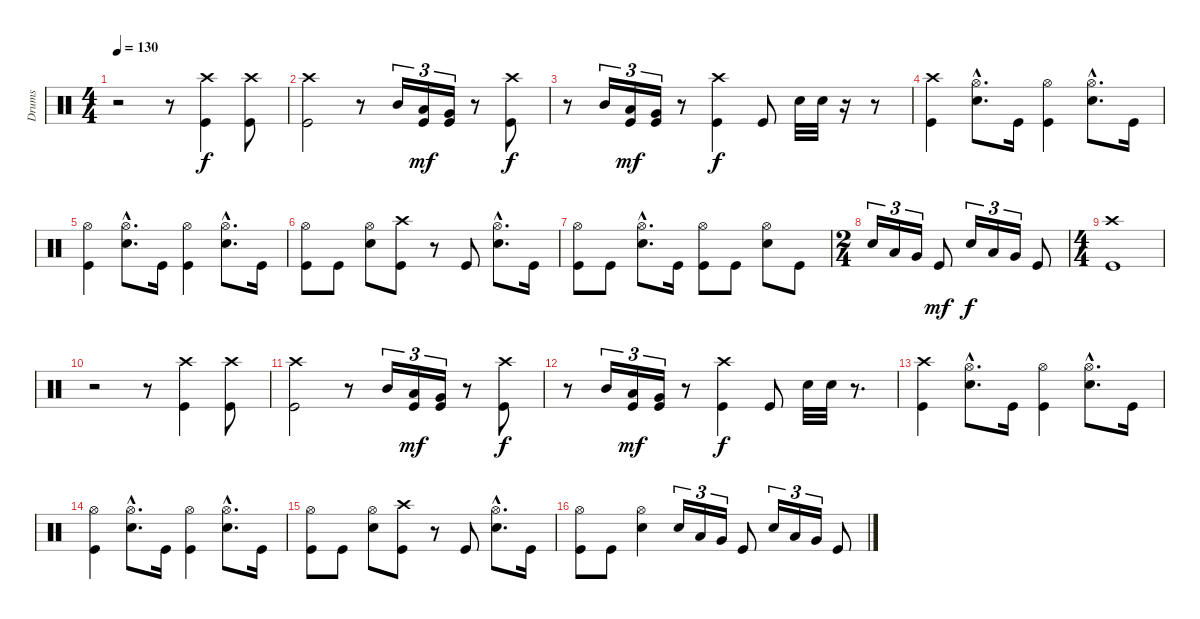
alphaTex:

\track ("Drums" "Drums") {instrument percussion}
\staff {score}
\articulation defaults
\ts (4 4)
\tempo 130
\clef neutral
\ks c
r.2{dy f} r.8 ("Crash high (hit)" "Kick (hit)").4 ("Crash high (hit)" "Kick (hit)").8 |
("Crash high (hit)" "Kick (hit)").2 r.8 "Mid Tom (hit)".16{tu (3 2)} ("Low Tom (hit)" "Kick (hit)").16{tu (3 2) dy mf} ("Very Low Tom (hit)" "Kick (hit)").16{tu (3 2)} r.8 ("Crash high (hit)" "Kick (hit)").8{dy f} |
r.8 "Mid Tom (hit)".16{tu (3 2)} ("Low Tom (hit)" "Kick (hit)").16{tu (3 2) dy mf} ("Very Low Tom (hit)" "Kick (hit)").16{tu (3 2)} r.8 ("Crash high (hit)" "Kick (hit)").4{dy f} "Kick (hit)".8 "Snare (hit) 2".32 "Snare (hit) 2".32 r.16 r.8 |
("Crash high (hit)" "Kick (hit)").4 ("Hi-Hat (open)"{hac} "Snare (hit) 2"{hac}).8{d} "Kick (hit)".16 ("Hi-Hat (open)" "Kick (hit)").4 ("Hi-Hat (open)"{hac} "Snare (hit) 2"{hac}).8{d} "Kick (hit)".16 |
("Hi-Hat (open)" "Kick (hit)").4 ("Hi-Hat (open)"{hac} "Snare (hit) 2"{hac}).8{d} "Kick (hit)".16 ("Hi-Hat (open)" "Kick (hit)").4 ("Hi-Hat (open)"{hac} "Snare (hit) 2"{hac}).8{d} "Kick (hit)".16 |
("Hi-Hat (open)" "Kick (hit)").8 "Kick (hit)".8 ("Hi-Hat (open)" "Snare (hit) 2").8 ("Crash high (hit)" "Kick (hit)").8 r.8 "Kick (hit)".8 ("Hi-Hat (open)"{hac} "Snare (hit) 2"{hac}).8{d} "Kick (hit)".16 |
("Hi-Hat (open)" "Kick (hit)").8 "Kick (hit)".8 ("Hi-Hat (open)"{hac} "Snare (hit) 2"{hac}).8{d} "Kick (hit)".16 ("Hi-Hat (open)" "Kick (hit)").8 "Kick (hit)".8 ("Hi-Hat (open)" "Snare (hit) 2").8 "Kick (hit)".8 |
\ts (2 4)
"Snare (hit) 2".16{tu (3 2)} "Low Tom (hit)".16{tu (3 2)} "Very Low Tom (hit)".16{tu (3 2)} "Kick (hit)".8{dy mf} "Snare (hit) 2".16{tu (3 2) dy f} "Low Tom (hit)".16{tu (3 2)} "Very Low Tom (hit)".16{tu (3 2)} "Kick (hit)".8 |
\ts (4 4)
("Crash high (hit)" "Kick (hit)").1 |
r.2 r.8 ("Crash high (hit)" "Kick (hit)").4 ("Crash high (hit)" "Kick (hit)").8 |
("Crash high (hit)" "Kick (hit)").2 r.8 "Mid Tom (hit)".16{tu (3 2)} ("Low Tom (hit)" "Kick (hit)").16{tu (3 2) dy mf} ("Very Low Tom (hit)" "Kick (hit)").16{tu (3 2)} r.8 ("Crash high (hit)" "Kick (hit)").8{dy f} |
r.8 "Mid Tom (hit)".16{tu (3 2)} ("Low Tom (hit)" "Kick (hit)").16{tu (3 2) dy mf} ("Very Low Tom (hit)" "Kick (hit)").16{tu (3 2)} r.8 ("Crash high (hit)" "Kick (hit)").4{dy f} "Kick (hit)".8 "Snare (hit) 2".32 "Snare (hit) 2".32 r.8{d} |
("Crash high (hit)" "Kick (hit)").4 ("Hi-Hat (open)"{hac} "Snare (hit) 2"{hac}).8{d} "Kick (hit)".16 ("Hi-Hat (open)" "Kick (hit)").4 ("Hi-Hat (open)"{hac} "Snare (hit) 2"{hac}).8{d} "Kick (hit)".16 |
("Hi-Hat (open)" "Kick (hit)").4 ("Hi-Hat (open)"{hac} "Snare (hit) 2"{hac}).8{d} "Kick (hit)".16 ("Hi-Hat (open)" "Kick (hit)").4 ("Hi-Hat (open)"{hac} "Snare (hit) 2"{hac}).8{d} "Kick (hit)".16 |
("Hi-Hat (open)" "Kick (hit)").8 "Kick (hit)".8 ("Hi-Hat (open)" "Snare (hit) 2").8 ("Crash high (hit)" "Kick (hit)").8 r.8 "Kick (hit)".8 ("Hi-Hat (open)"{hac} "Snare (hit) 2"{hac}).8{d} "Kick (hit)".16 |
("Hi-Hat (open)" "Kick (hit)").8 "Kick (hit)".8 ("Hi-Hat (open)" "Snare (hit) 2").4 "Snare (hit) 2".16{tu (3 2)} "Low Tom (hit)".16{tu (3 2)} "Very Low Tom (hit)".16{tu (3 2)} "Kick (hit)".8 "Snare (hit) 2".16{tu (3 2)} "Low Tom (hit)".16{tu (3 2)} "Very Low Tom (hit)".16{tu (3 2)} "Kick (hit)".8
